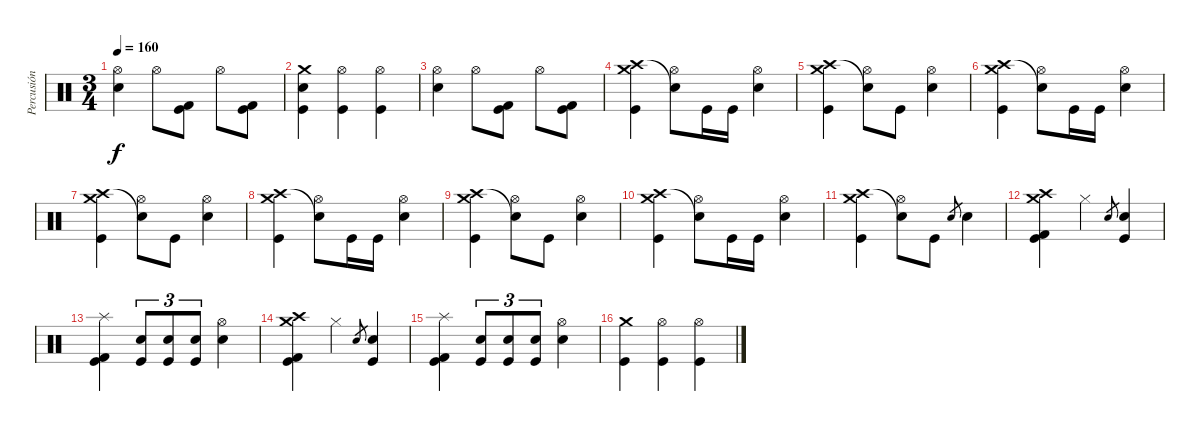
\track ("Percusión" "Percusión") {instrument percussion}
\staff {score}
\articulation defaults
\ts (3 4)
\tempo 160
\clef neutral
\ks c
("Hi-Hat (open)" "Electric Snare (hit)").4{dy f} "Hi-Hat (open)".8 ("Kick (hit) 2" "Kick (hit)").8 "Hi-Hat (open)".8 ("Kick (hit) 2" "Kick (hit)").8 |
("Crash medium (hit)" "Electric Snare (hit)" "Kick (hit)").4 ("Hi-Hat (open)" "Kick (hit)").4 ("Hi-Hat (open)" "Kick (hit)").4 |
("Hi-Hat (open)" "Electric Snare (hit)").4 "Hi-Hat (open)".8 ("Kick (hit) 2" "Kick (hit)").8 "Hi-Hat (open)".8 ("Kick (hit) 2" "Kick (hit)").8 |
("Crash medium (hit)" "Crash high (hit)" "Kick (hit)").4 ("Hi-Hat (open)" "Snare (hit)"{t}).8 "Kick (hit)".16 "Kick (hit)".16 ("Hi-Hat (open)" "Electric Snare (hit)").4 |
("Crash medium (hit)" "Crash high (hit)" "Kick (hit)").4 ("Hi-Hat (open)" "Snare (hit)"{t}).8 "Kick (hit)".8 ("Hi-Hat (open)" "Electric Snare (hit)").4 |
("Crash medium (hit)" "Crash high (hit)" "Kick (hit)").4 ("Hi-Hat (open)" "Snare (hit)"{t}).8 "Kick (hit)".16 "Kick (hit)".16 ("Hi-Hat (open)" "Electric Snare (hit)").4 |
("Crash medium (hit)" "Crash high (hit)" "Kick (hit)").4 ("Hi-Hat (open)" "Snare (hit)"{t}).8 "Kick (hit)".8 ("Hi-Hat (open)" "Electric Snare (hit)").4 |
("Crash medium (hit)" "Crash high (hit)" "Kick (hit)").4 ("Hi-Hat (open)" "Snare (hit)"{t}).8 "Kick (hit)".16 "Kick (hit)".16 ("Hi-Hat (open)" "Electric Snare (hit)").4 |
("Crash medium (hit)" "Crash high (hit)" "Kick (hit)").4 ("Hi-Hat (open)" "Snare (hit)"{t}).8 "Kick (hit)".8 ("Hi-Hat (open)" "Electric Snare (hit)").4 |
("Crash medium (hit)" "Crash high (hit)" "Kick (hit)").4 ("Hi-Hat (open)" "Snare (hit)"{t}).8 "Kick (hit)".16 "Kick (hit)".16 ("Hi-Hat (open)" "Electric Snare (hit)").4 |
("Crash medium (hit)" "Crash high (hit)" "Kick (hit)").4 ("Hi-Hat (open)" "Snare (hit)"{t}).8 "Kick (hit)".8 "Electric Snare (hit)".8{gr} "Electric Snare (hit)".4 |
("Crash medium (hit)" "Crash high (hit)" "Kick (hit) 2" "Kick (hit)").4 "Hi-Hat (closed)".4 "Electric Snare (hit)".8{gr} ("Electric Snare (hit)" "Kick (hit)").4 |
("Splash (hit)" "Kick (hit) 2" "Kick (hit)").4 ("Electric Snare (hit)" "Kick (hit)").8{tu (3 2)} ("Electric Snare (hit)" "Kick (hit)").8{tu (3 2)} ("Electric Snare (hit)" "Kick (hit)").8{tu (3 2)} ("Hi-Hat (open)" "Electric Snare (hit)").4 |
("Crash medium (hit)" "Crash high (hit)" "Kick (hit) 2" "Kick (hit)").4 "Hi-Hat (closed)".4 "Electric Snare (hit)".8{gr} ("Electric Snare (hit)" "Kick (hit)").4 |
("Splash (hit)" "Kick (hit) 2" "Kick (hit)").4 ("Electric Snare (hit)" "Kick (hit)").8{tu (3 2)} ("Electric Snare (hit)" "Kick (hit)").8{tu (3 2)} ("Electric Snare (hit)" "Kick (hit)").8{tu (3 2)} ("Hi-Hat (open)" "Electric Snare (hit)").4 |
("Crash medium (hit)" "Kick (hit)").4 ("Hi-Hat (open)" "Kick (hit)").4 ("Hi-Hat (open)" "Kick (hit)").4
